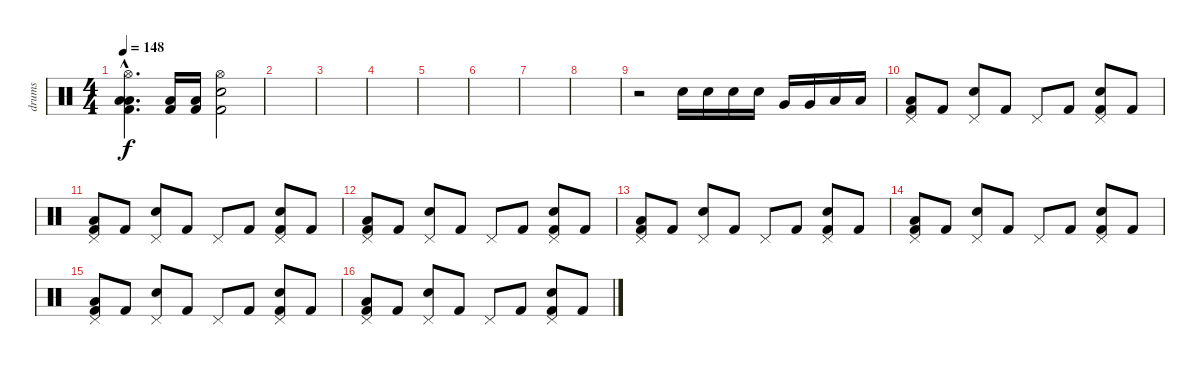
\track ("drums" "drums") {instrument percussion}
\staff {score}
\articulation defaults
\ts (4 4)
\tempo 148
\clef neutral
\ks c
("Hi-Hat (open)"{hac} "Low Floor Tom (hit)"{hac} "Low Floor Tom (hit)"{hac} "Kick (hit) 2"{hac}).4{d dy f} ("Low Floor Tom (hit)" "Kick (hit) 2").16 ("Low Floor Tom (hit)" "Kick (hit) 2").16 ("Hi-Hat (open)" "Snare (hit) 2" "Kick (hit) 2").2 |
|
|
|
|
|
|
|
r.2 "Electric Snare (hit)".16 "Electric Snare (hit)".16 "Electric Snare (hit)".16 "Electric Snare (hit)".16 "Very Low Tom (hit)".16 "Very Low Tom (hit)".16 "Low Floor Tom (hit)".16 "Low Floor Tom (hit)".16 |
("Pedal Hi-Hat (hit)" "Low Floor Tom (hit)" "Kick (hit) 2").8 "Kick (hit) 2".8 ("Pedal Hi-Hat (hit)" "Snare (hit) 2").8 "Kick (hit) 2".8 "Pedal Hi-Hat (hit)".8 "Kick (hit) 2".8 ("Pedal Hi-Hat (hit)" "Snare (hit) 2" "Kick (hit) 2").8 "Kick (hit) 2".8 |
("Pedal Hi-Hat (hit)" "Low Floor Tom (hit)" "Kick (hit) 2").8 "Kick (hit) 2".8 ("Pedal Hi-Hat (hit)" "Snare (hit) 2").8 "Kick (hit) 2".8 "Pedal Hi-Hat (hit)".8 "Kick (hit) 2".8 ("Pedal Hi-Hat (hit)" "Snare (hit) 2" "Kick (hit) 2").8 "Kick (hit) 2".8 |
("Pedal Hi-Hat (hit)" "Low Floor Tom (hit)" "Kick (hit) 2").8 "Kick (hit) 2".8 ("Pedal Hi-Hat (hit)" "Snare (hit) 2").8 "Kick (hit) 2".8 "Pedal Hi-Hat (hit)".8 "Kick (hit) 2".8 ("Pedal Hi-Hat (hit)" "Snare (hit) 2" "Kick (hit) 2").8 "Kick (hit) 2".8 |
("Pedal Hi-Hat (hit)" "Low Floor Tom (hit)" "Kick (hit) 2").8 "Kick (hit) 2".8 ("Pedal Hi-Hat (hit)" "Snare (hit) 2").8 "Kick (hit) 2".8 "Pedal Hi-Hat (hit)".8 "Kick (hit) 2".8 ("Pedal Hi-Hat (hit)" "Snare (hit) 2" "Kick (hit) 2").8 "Kick (hit) 2".8 |
("Pedal Hi-Hat (hit)" "Low Floor Tom (hit)" "Kick (hit) 2").8 "Kick (hit) 2".8 ("Pedal Hi-Hat (hit)" "Snare (hit) 2").8 "Kick (hit) 2".8 "Pedal Hi-Hat (hit)".8 "Kick (hit) 2".8 ("Pedal Hi-Hat (hit)" "Snare (hit) 2" "Kick (hit) 2").8 "Kick (hit) 2".8 |
("Pedal Hi-Hat (hit)" "Low Floor Tom (hit)" "Kick (hit) 2").8 "Kick (hit) 2".8 ("Pedal Hi-Hat (hit)" "Snare (hit) 2").8 "Kick (hit) 2".8 "Pedal Hi-Hat (hit)".8 "Kick (hit) 2".8 ("Pedal Hi-Hat (hit)" "Snare (hit) 2" "Kick (hit) 2").8 "Kick (hit) 2".8 |
("Pedal Hi-Hat (hit)" "Low Floor Tom (hit)" "Kick (hit) 2").8 "Kick (hit) 2".8 ("Pedal Hi-Hat (hit)" "Snare (hit) 2").8 "Kick (hit) 2".8 "Pedal Hi-Hat (hit)".8 "Kick (hit) 2".8 ("Pedal Hi-Hat (hit)" "Snare (hit) 2" "Kick (hit) 2").8 "Kick (hit) 2".8
